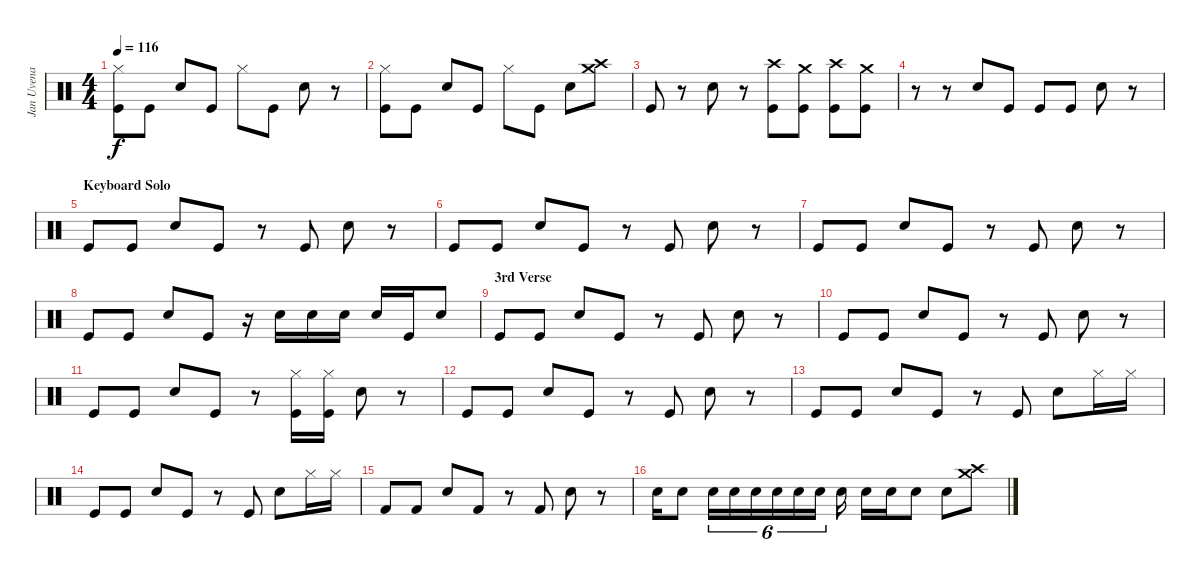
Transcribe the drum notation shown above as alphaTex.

\track ("Jan Uvena" "Jan Uvena") {instrument percussion}
\staff {score}
\articulation defaults
\ts (4 4)
\tempo 116
\clef neutral
\ks c
("Hi-Hat (closed)" "Kick (hit)").8{dy f} "Kick (hit)".8 "Snare (hit) 2".8 "Kick (hit)".8 "Hi-Hat (closed)".8 "Kick (hit)".8 "Snare (hit) 2".8 r.8 |
("Hi-Hat (closed)" "Kick (hit)").8 "Kick (hit)".8 "Snare (hit) 2".8 "Kick (hit)".8 "Hi-Hat (closed)".8 "Kick (hit)".8 "Snare (hit) 2".8 ("Crash medium (hit)" "Crash high (hit)").8 |
"Kick (hit)".8 r.8 "Snare (hit) 2".8 r.8 ("Crash high (hit)" "Kick (hit)").8 ("Crash medium (hit)" "Kick (hit)").8 ("Crash high (hit)" "Kick (hit)").8 ("Crash medium (hit)" "Kick (hit)").8 |
r.8 r.8 "Snare (hit) 2".8 "Kick (hit)".8 "Kick (hit)".8 "Kick (hit)".8 "Snare (hit) 2".8 r.8 |
\section ("" "Keyboard Solo")
"Kick (hit)".8 "Kick (hit)".8 "Snare (hit) 2".8 "Kick (hit)".8 r.8 "Kick (hit)".8 "Snare (hit) 2".8 r.8 |
"Kick (hit)".8 "Kick (hit)".8 "Snare (hit) 2".8 "Kick (hit)".8 r.8 "Kick (hit)".8 "Snare (hit) 2".8 r.8 |
"Kick (hit)".8 "Kick (hit)".8 "Snare (hit) 2".8 "Kick (hit)".8 r.8 "Kick (hit)".8 "Snare (hit) 2".8 r.8 |
"Kick (hit)".8 "Kick (hit)".8 "Snare (hit) 2".8 "Kick (hit)".8 r.16 "Snare (hit) 2".16 "Snare (hit) 2".16 "Snare (hit) 2".16 "Snare (hit) 2".16 "Kick (hit)".16 "Snare (hit) 2".8 |
\section ("" "3rd Verse")
"Kick (hit)".8 "Kick (hit)".8 "Snare (hit) 2".8 "Kick (hit)".8 r.8 "Kick (hit)".8 "Snare (hit) 2".8 r.8 |
"Kick (hit)".8 "Kick (hit)".8 "Snare (hit) 2".8 "Kick (hit)".8 r.8 "Kick (hit)".8 "Snare (hit) 2".8 r.8 |
"Kick (hit)".8 "Kick (hit)".8 "Snare (hit) 2".8 "Kick (hit)".8 r.8 ("Hi-Hat (closed)" "Kick (hit)").16 ("Hi-Hat (closed)" "Kick (hit)").16 "Snare (hit) 2".8 r.8 |
"Kick (hit)".8 "Kick (hit)".8 "Snare (hit) 2".8 "Kick (hit)".8 r.8 "Kick (hit)".8 "Snare (hit) 2".8 r.8 |
"Kick (hit)".8 "Kick (hit)".8 "Snare (hit) 2".8 "Kick (hit)".8 r.8 "Kick (hit)".8 "Snare (hit) 2".8 "Hi-Hat (closed)".16 "Hi-Hat (closed)".16 |
"Kick (hit)".8 "Kick (hit)".8 "Snare (hit) 2".8 "Kick (hit)".8 r.8 "Kick (hit)".8 "Snare (hit) 2".8 "Hi-Hat (closed)".16 "Hi-Hat (closed)".16 |
"Kick (hit) 2".8 "Kick (hit) 2".8 "Snare (hit) 2".8 "Kick (hit) 2".8 r.8 "Kick (hit) 2".8 "Snare (hit) 2".8 r.8 |
"Snare (hit) 2".16 "Snare (hit) 2".8 "Snare (hit) 2".16{tu (6 4)} "Snare (hit) 2".16{tu (6 4)} "Snare (hit) 2".16{tu (6 4)} "Snare (hit) 2".16{tu (6 4)} "Snare (hit) 2".16{tu (6 4)} "Snare (hit) 2".16{tu (6 4)} "Snare (hit) 2".16 "Snare (hit) 2".16 "Snare (hit) 2".16 "Snare (hit) 2".8 "Snare (hit) 2".8 ("Crash medium (hit)" "Crash high (hit)").8
